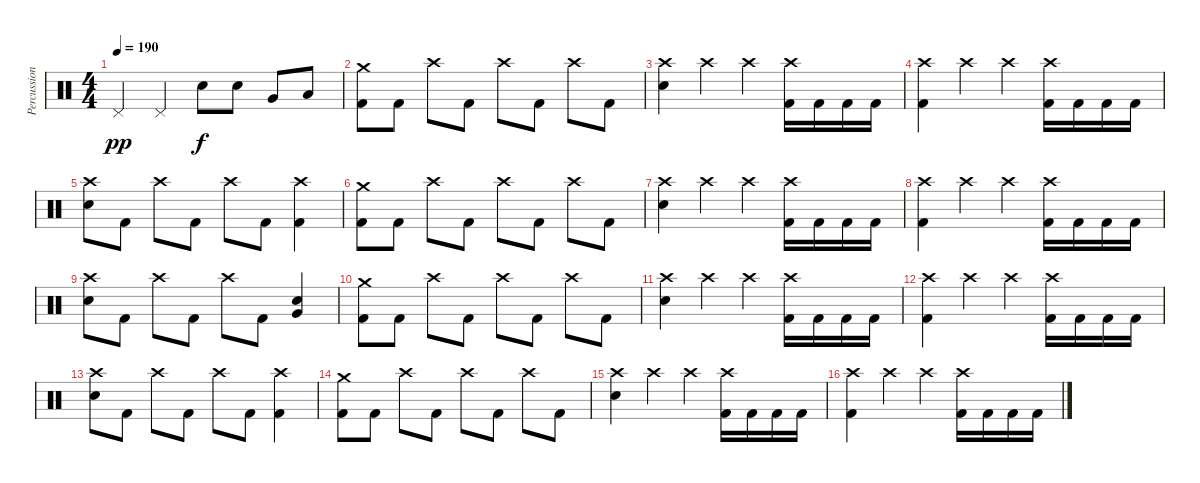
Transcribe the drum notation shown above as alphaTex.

\track ("Percussions" "Percussion") {instrument percussion}
\staff {score}
\articulation defaults
\ts (4 4)
\tempo 190
\clef neutral
\ks c "Pedal Hi-Hat (hit)".4{dy pp} "Pedal Hi-Hat (hit)".4 "Electric Snare (hit)".8{dy f} "Electric Snare (hit)".8 "Very Low Tom (hit)".8 "Low Tom (hit)".8
|
("Crash medium (hit)" "Kick (hit) 2").8 "Kick (hit) 2".8 "Crash high (hit)".8 "Kick (hit) 2".8 "Crash high (hit)".8 "Kick (hit) 2".8 "Crash high (hit)".8 "Kick (hit) 2".8 |
("Crash high (hit)" "Electric Snare (hit)").4 "Crash high (hit)".4 "Crash high (hit)".4 ("Crash high (hit)" "Kick (hit) 2").16 "Kick (hit) 2".16 "Kick (hit) 2".16 "Kick (hit) 2".16 |
("Crash high (hit)" "Kick (hit) 2").4 "Crash high (hit)".4 "Crash high (hit)".4 ("Crash high (hit)" "Kick (hit) 2").16 "Kick (hit) 2".16 "Kick (hit) 2".16 "Kick (hit) 2".16 |
("Crash high (hit)" "Electric Snare (hit)").8 "Kick (hit) 2".8 "Crash high (hit)".8 "Kick (hit) 2".8 "Crash high (hit)".8 "Kick (hit) 2".8 ("Crash high (hit)" "Kick (hit) 2").4 |
("Crash medium (hit)" "Kick (hit) 2").8 "Kick (hit) 2".8 "Crash high (hit)".8 "Kick (hit) 2".8 "Crash high (hit)".8 "Kick (hit) 2".8 "Crash high (hit)".8 "Kick (hit) 2".8 |
("Crash high (hit)" "Electric Snare (hit)").4 "Crash high (hit)".4 "Crash high (hit)".4 ("Crash high (hit)" "Kick (hit) 2").16 "Kick (hit) 2".16 "Kick (hit) 2".16 "Kick (hit) 2".16 |
("Crash high (hit)" "Kick (hit) 2").4 "Crash high (hit)".4 "Crash high (hit)".4 ("Crash high (hit)" "Kick (hit) 2").16 "Kick (hit) 2".16 "Kick (hit) 2".16 "Kick (hit) 2".16 |
("Crash high (hit)" "Electric Snare (hit)").8 "Kick (hit) 2".8 "Crash high (hit)".8 "Kick (hit) 2".8 "Crash high (hit)".8 "Kick (hit) 2".8 ("Electric Snare (hit)" "Very Low Tom (hit)").4 |
("Crash medium (hit)" "Kick (hit) 2").8 "Kick (hit) 2".8 "Crash high (hit)".8 "Kick (hit) 2".8 "Crash high (hit)".8 "Kick (hit) 2".8 "Crash high (hit)".8 "Kick (hit) 2".8 |
("Crash high (hit)" "Electric Snare (hit)").4 "Crash high (hit)".4 "Crash high (hit)".4 ("Crash high (hit)" "Kick (hit) 2").16 "Kick (hit) 2".16 "Kick (hit) 2".16 "Kick (hit) 2".16 |
("Crash high (hit)" "Kick (hit) 2").4 "Crash high (hit)".4 "Crash high (hit)".4 ("Crash high (hit)" "Kick (hit) 2").16 "Kick (hit) 2".16 "Kick (hit) 2".16 "Kick (hit) 2".16 |
("Crash high (hit)" "Electric Snare (hit)").8 "Kick (hit) 2".8 "Crash high (hit)".8 "Kick (hit) 2".8 "Crash high (hit)".8 "Kick (hit) 2".8 ("Crash high (hit)" "Kick (hit) 2").4 |
("Crash medium (hit)" "Kick (hit) 2").8 "Kick (hit) 2".8 "Crash high (hit)".8 "Kick (hit) 2".8 "Crash high (hit)".8 "Kick (hit) 2".8 "Crash high (hit)".8 "Kick (hit) 2".8 |
("Crash high (hit)" "Electric Snare (hit)").4 "Crash high (hit)".4 "Crash high (hit)".4 ("Crash high (hit)" "Kick (hit) 2").16 "Kick (hit) 2".16 "Kick (hit) 2".16 "Kick (hit) 2".16 |
("Crash high (hit)" "Kick (hit) 2").4 "Crash high (hit)".4 "Crash high (hit)".4 ("Crash high (hit)" "Kick (hit) 2").16 "Kick (hit) 2".16 "Kick (hit) 2".16 "Kick (hit) 2".16
